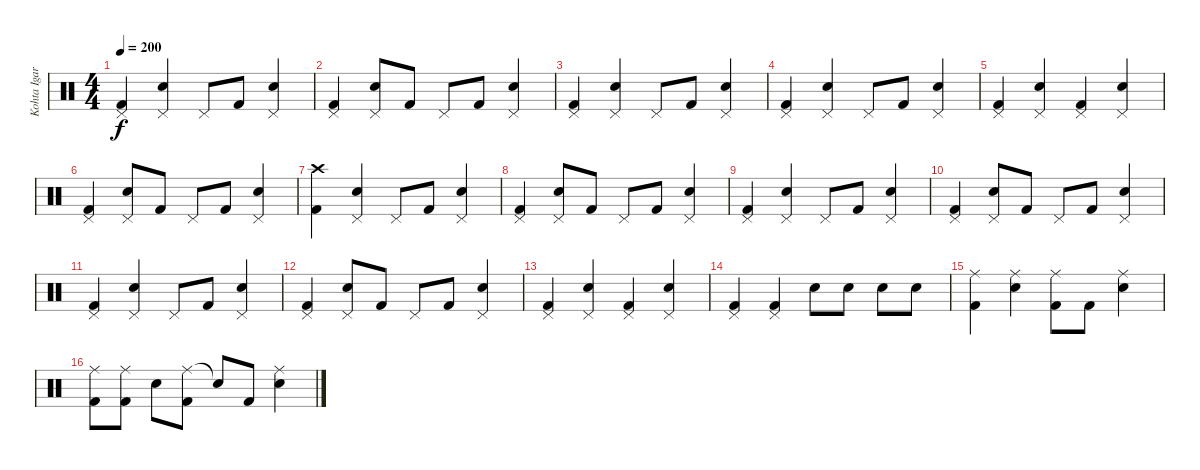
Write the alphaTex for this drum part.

\track ("Kohta Igarashi" "Kohta Igar") {instrument percussion}
\staff {score}
\articulation defaults
\ts (4 4)
\tempo 200
\clef neutral
\ks c
("Pedal Hi-Hat (hit)" "Kick (hit) 2").4{dy f} ("Pedal Hi-Hat (hit)" "Electric Snare (hit)").4 "Pedal Hi-Hat (hit)".8 "Kick (hit) 2".8 ("Pedal Hi-Hat (hit)" "Electric Snare (hit)").4 |
("Pedal Hi-Hat (hit)" "Kick (hit) 2").4 ("Pedal Hi-Hat (hit)" "Electric Snare (hit)").8 "Kick (hit) 2".8 "Pedal Hi-Hat (hit)".8 "Kick (hit) 2".8 ("Pedal Hi-Hat (hit)" "Electric Snare (hit)").4 |
("Pedal Hi-Hat (hit)" "Kick (hit) 2").4 ("Pedal Hi-Hat (hit)" "Electric Snare (hit)").4 "Pedal Hi-Hat (hit)".8 "Kick (hit) 2".8 ("Pedal Hi-Hat (hit)" "Electric Snare (hit)").4 |
("Pedal Hi-Hat (hit)" "Kick (hit) 2").4 ("Pedal Hi-Hat (hit)" "Electric Snare (hit)").4 "Pedal Hi-Hat (hit)".8 "Kick (hit) 2".8 ("Pedal Hi-Hat (hit)" "Electric Snare (hit)").4 |
("Pedal Hi-Hat (hit)" "Kick (hit) 2").4 ("Pedal Hi-Hat (hit)" "Electric Snare (hit)").4 ("Pedal Hi-Hat (hit)" "Kick (hit) 2").4 ("Pedal Hi-Hat (hit)" "Electric Snare (hit)").4 |
("Pedal Hi-Hat (hit)" "Kick (hit) 2").4 ("Pedal Hi-Hat (hit)" "Electric Snare (hit)").8 "Kick (hit) 2".8 "Pedal Hi-Hat (hit)".8 "Kick (hit) 2".8 ("Pedal Hi-Hat (hit)" "Electric Snare (hit)").4 |
("Crash high (hit)" "Kick (hit) 2").4 ("Pedal Hi-Hat (hit)" "Electric Snare (hit)").4 "Pedal Hi-Hat (hit)".8 "Kick (hit) 2".8 ("Pedal Hi-Hat (hit)" "Electric Snare (hit)").4 |
("Pedal Hi-Hat (hit)" "Kick (hit) 2").4 ("Pedal Hi-Hat (hit)" "Electric Snare (hit)").8 "Kick (hit) 2".8 "Pedal Hi-Hat (hit)".8 "Kick (hit) 2".8 ("Pedal Hi-Hat (hit)" "Electric Snare (hit)").4 |
("Pedal Hi-Hat (hit)" "Kick (hit) 2").4 ("Pedal Hi-Hat (hit)" "Electric Snare (hit)").4 "Pedal Hi-Hat (hit)".8 "Kick (hit) 2".8 ("Pedal Hi-Hat (hit)" "Electric Snare (hit)").4 |
("Pedal Hi-Hat (hit)" "Kick (hit) 2").4 ("Pedal Hi-Hat (hit)" "Electric Snare (hit)").8 "Kick (hit) 2".8 "Pedal Hi-Hat (hit)".8 "Kick (hit) 2".8 ("Pedal Hi-Hat (hit)" "Electric Snare (hit)").4 |
("Pedal Hi-Hat (hit)" "Kick (hit) 2").4 ("Pedal Hi-Hat (hit)" "Electric Snare (hit)").4 "Pedal Hi-Hat (hit)".8 "Kick (hit) 2".8 ("Pedal Hi-Hat (hit)" "Electric Snare (hit)").4 |
("Pedal Hi-Hat (hit)" "Kick (hit) 2").4 ("Pedal Hi-Hat (hit)" "Electric Snare (hit)").8 "Kick (hit) 2".8 "Pedal Hi-Hat (hit)".8 "Kick (hit) 2".8 ("Pedal Hi-Hat (hit)" "Electric Snare (hit)").4 |
("Pedal Hi-Hat (hit)" "Kick (hit) 2").4 ("Pedal Hi-Hat (hit)" "Electric Snare (hit)").4 ("Pedal Hi-Hat (hit)" "Kick (hit) 2").4 ("Pedal Hi-Hat (hit)" "Electric Snare (hit)").4 |
("Pedal Hi-Hat (hit)" "Kick (hit) 2").4 ("Pedal Hi-Hat (hit)" "Kick (hit) 2").4 "Electric Snare (hit)".8 "Electric Snare (hit)".8 "Electric Snare (hit)".8 "Electric Snare (hit)".8 |
("Ride (middle)" "Kick (hit) 2").4 ("Ride (middle)" "Electric Snare (hit)").4 ("Ride (middle)" "Kick (hit) 2").8 "Kick (hit) 2".8 ("Ride (middle)" "Electric Snare (hit)").4 |
("Ride (middle)" "Kick (hit) 2").8 ("Ride (middle)" "Kick (hit) 2").8 "Electric Snare (hit)".8 ("Ride (middle)" "Kick (hit) 2").8 "Snare (hit)"{t}.8 "Kick (hit) 2".8 ("Ride (middle)" "Electric Snare (hit)").4
